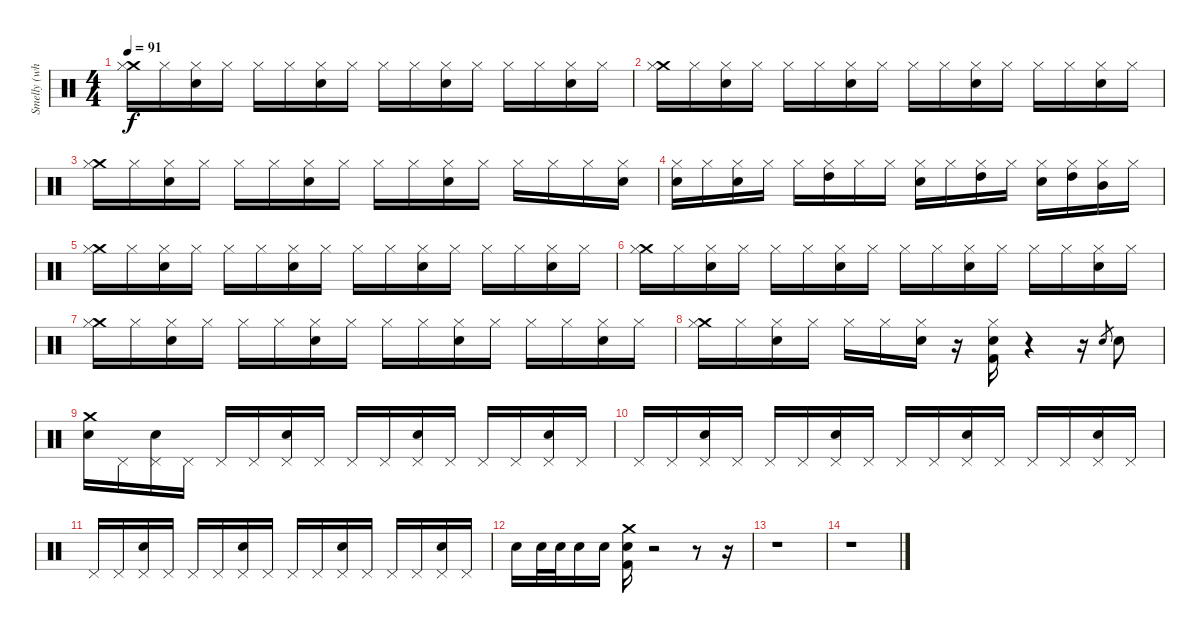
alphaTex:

\track ("Smelly (who ever change his name)" "Smelly (wh") {instrument percussion}
\staff {score}
\articulation defaults
\ts (4 4)
\tempo 91
\clef neutral
\ks c
("Crash medium (hit)" "Hi-Hat (closed)").16{dy f} "Hi-Hat (closed)".16 ("Hi-Hat (closed)" "Electric Snare (hit)").16 "Hi-Hat (closed)".16 "Hi-Hat (closed)".16 "Hi-Hat (closed)".16 ("Hi-Hat (closed)" "Electric Snare (hit)").16 "Hi-Hat (closed)".16 "Hi-Hat (closed)".16 "Hi-Hat (closed)".16 ("Hi-Hat (closed)" "Electric Snare (hit)").16 "Hi-Hat (closed)".16 "Hi-Hat (closed)".16 "Hi-Hat (closed)".16 ("Hi-Hat (closed)" "Electric Snare (hit)").16 "Hi-Hat (closed)".16 |
("Crash medium (hit)" "Hi-Hat (closed)").16 "Hi-Hat (closed)".16 ("Hi-Hat (closed)" "Electric Snare (hit)").16 "Hi-Hat (closed)".16 "Hi-Hat (closed)".16 "Hi-Hat (closed)".16 ("Hi-Hat (closed)" "Electric Snare (hit)").16 "Hi-Hat (closed)".16 "Hi-Hat (closed)".16 "Hi-Hat (closed)".16 ("Hi-Hat (closed)" "Electric Snare (hit)").16 "Hi-Hat (closed)".16 "Hi-Hat (closed)".16 "Hi-Hat (closed)".16 ("Hi-Hat (closed)" "Electric Snare (hit)").16 "Hi-Hat (closed)".16 |
("Crash medium (hit)" "Hi-Hat (closed)").16 "Hi-Hat (closed)".16 ("Hi-Hat (closed)" "Electric Snare (hit)").16 "Hi-Hat (closed)".16 "Hi-Hat (closed)".16 "Hi-Hat (closed)".16 ("Hi-Hat (closed)" "Electric Snare (hit)").16 "Hi-Hat (closed)".16 "Hi-Hat (closed)".16 "Hi-Hat (closed)".16 ("Hi-Hat (closed)" "Electric Snare (hit)").16 "Hi-Hat (closed)".16 "Hi-Hat (closed)".16 "Hi-Hat (closed)".16 "Hi-Hat (closed)".16 ("Hi-Hat (closed)" "Electric Snare (hit)").16 |
("Hi-Hat (closed)" "Electric Snare (hit)").16 "Hi-Hat (closed)".16 ("Hi-Hat (closed)" "Electric Snare (hit)").16 "Hi-Hat (closed)".16 "Hi-Hat (closed)".16 ("Hi-Hat (closed)" "High Tom (hit)").16 "Hi-Hat (closed)".16 "Hi-Hat (closed)".16 ("Hi-Hat (closed)" "Electric Snare (hit)").16 "Hi-Hat (closed)".16 ("Hi-Hat (closed)" "High Tom (hit)").16 "Hi-Hat (closed)".16 ("Hi-Hat (closed)" "Electric Snare (hit)").16 ("Hi-Hat (closed)" "High Tom (hit)").16 ("Hi-Hat (closed)" "Mid Tom (hit)").16 "Hi-Hat (closed)".16 |
("Crash medium (hit)" "Hi-Hat (closed)").16 "Hi-Hat (closed)".16 ("Hi-Hat (closed)" "Electric Snare (hit)").16 "Hi-Hat (closed)".16 "Hi-Hat (closed)".16 "Hi-Hat (closed)".16 ("Hi-Hat (closed)" "Electric Snare (hit)").16 "Hi-Hat (closed)".16 "Hi-Hat (closed)".16 "Hi-Hat (closed)".16 ("Hi-Hat (closed)" "Electric Snare (hit)").16 "Hi-Hat (closed)".16 "Hi-Hat (closed)".16 "Hi-Hat (closed)".16 ("Hi-Hat (closed)" "Electric Snare (hit)").16 "Hi-Hat (closed)".16 |
("Crash medium (hit)" "Hi-Hat (closed)").16 "Hi-Hat (closed)".16 ("Hi-Hat (closed)" "Electric Snare (hit)").16 "Hi-Hat (closed)".16 "Hi-Hat (closed)".16 "Hi-Hat (closed)".16 ("Hi-Hat (closed)" "Electric Snare (hit)").16 "Hi-Hat (closed)".16 "Hi-Hat (closed)".16 "Hi-Hat (closed)".16 ("Hi-Hat (closed)" "Electric Snare (hit)").16 "Hi-Hat (closed)".16 "Hi-Hat (closed)".16 "Hi-Hat (closed)".16 ("Hi-Hat (closed)" "Electric Snare (hit)").16 "Hi-Hat (closed)".16 |
("Crash medium (hit)" "Hi-Hat (closed)").16 "Hi-Hat (closed)".16 ("Hi-Hat (closed)" "Electric Snare (hit)").16 "Hi-Hat (closed)".16 "Hi-Hat (closed)".16 "Hi-Hat (closed)".16 ("Hi-Hat (closed)" "Electric Snare (hit)").16 "Hi-Hat (closed)".16 "Hi-Hat (closed)".16 "Hi-Hat (closed)".16 ("Hi-Hat (closed)" "Electric Snare (hit)").16 "Hi-Hat (closed)".16 "Hi-Hat (closed)".16 "Hi-Hat (closed)".16 ("Hi-Hat (closed)" "Electric Snare (hit)").16 "Hi-Hat (closed)".16 |
("Crash medium (hit)" "Hi-Hat (closed)").16 "Hi-Hat (closed)".16 ("Hi-Hat (closed)" "Electric Snare (hit)").16 "Hi-Hat (closed)".16 "Hi-Hat (closed)".16 "Hi-Hat (closed)".16 ("Hi-Hat (closed)" "Electric Snare (hit)").16 r.16 ("Hi-Hat (closed)" "Electric Snare (hit)" "Kick (hit) 2").16 r.4 r.16 "Electric Snare (hit)".8{gr} "Electric Snare (hit)".8 |
("Crash medium (hit)" "Electric Snare (hit)").16 "Pedal Hi-Hat (hit)".16 ("Pedal Hi-Hat (hit)" "Electric Snare (hit)").16 "Pedal Hi-Hat (hit)".16 "Pedal Hi-Hat (hit)".16 "Pedal Hi-Hat (hit)".16 ("Pedal Hi-Hat (hit)" "Electric Snare (hit)").16 "Pedal Hi-Hat (hit)".16 "Pedal Hi-Hat (hit)".16 "Pedal Hi-Hat (hit)".16 ("Pedal Hi-Hat (hit)" "Electric Snare (hit)").16 "Pedal Hi-Hat (hit)".16 "Pedal Hi-Hat (hit)".16 "Pedal Hi-Hat (hit)".16 ("Pedal Hi-Hat (hit)" "Electric Snare (hit)").16 "Pedal Hi-Hat (hit)".16 |
"Pedal Hi-Hat (hit)".16 "Pedal Hi-Hat (hit)".16 ("Pedal Hi-Hat (hit)" "Electric Snare (hit)").16 "Pedal Hi-Hat (hit)".16 "Pedal Hi-Hat (hit)".16 "Pedal Hi-Hat (hit)".16 ("Pedal Hi-Hat (hit)" "Electric Snare (hit)").16 "Pedal Hi-Hat (hit)".16 "Pedal Hi-Hat (hit)".16 "Pedal Hi-Hat (hit)".16 ("Pedal Hi-Hat (hit)" "Electric Snare (hit)").16 "Pedal Hi-Hat (hit)".16 "Pedal Hi-Hat (hit)".16 "Pedal Hi-Hat (hit)".16 ("Pedal Hi-Hat (hit)" "Electric Snare (hit)").16 "Pedal Hi-Hat (hit)".16 |
"Pedal Hi-Hat (hit)".16 "Pedal Hi-Hat (hit)".16 ("Pedal Hi-Hat (hit)" "Electric Snare (hit)").16 "Pedal Hi-Hat (hit)".16 "Pedal Hi-Hat (hit)".16 "Pedal Hi-Hat (hit)".16 ("Pedal Hi-Hat (hit)" "Electric Snare (hit)").16 "Pedal Hi-Hat (hit)".16 "Pedal Hi-Hat (hit)".16 "Pedal Hi-Hat (hit)".16 ("Pedal Hi-Hat (hit)" "Electric Snare (hit)").16 "Pedal Hi-Hat (hit)".16 "Pedal Hi-Hat (hit)".16 "Pedal Hi-Hat (hit)".16 ("Pedal Hi-Hat (hit)" "Electric Snare (hit)").16 "Pedal Hi-Hat (hit)".16 |
"Electric Snare (hit)".16 "Electric Snare (hit)".32 "Electric Snare (hit)".32 "Electric Snare (hit)".16 "Electric Snare (hit)".16 ("Crash medium (hit)" "Electric Snare (hit)" "Kick (hit) 2").16 r.2 r.8 r.16 |
r.1 |
r.1
